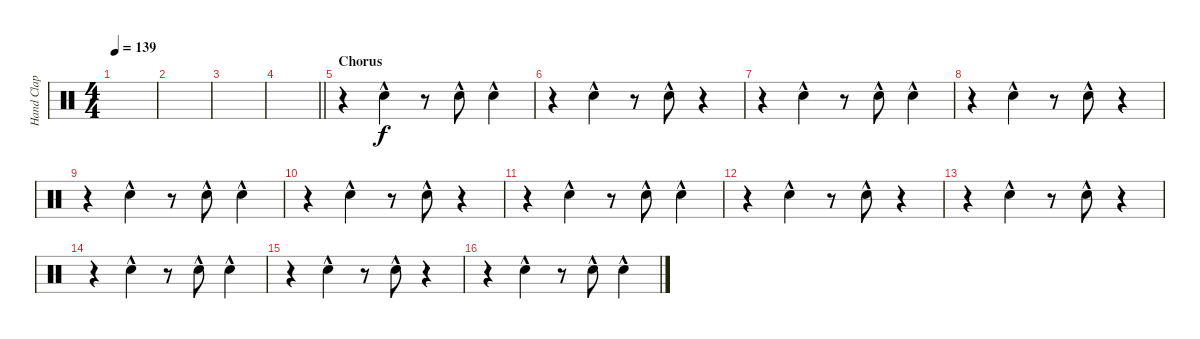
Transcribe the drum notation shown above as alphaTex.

\track ("Hand Clap Effect" "Hand Clap ") {instrument percussion}
\staff {score}
\articulation defaults
\ts (4 4)
\tempo 139
\clef neutral
\ks c
|
|
|
\barLineRight lightlight
|
\section ("" "Chorus")
r.4 "Hand Clap (hit)"{hac}.4 r.8 "Hand Clap (hit)"{hac}.8 "Hand Clap (hit)"{hac}.4 |
r.4 "Hand Clap (hit)"{hac}.4 r.8 "Hand Clap (hit)"{hac}.8 r.4 |
r.4 "Hand Clap (hit)"{hac}.4 r.8 "Hand Clap (hit)"{hac}.8 "Hand Clap (hit)"{hac}.4 |
r.4 "Hand Clap (hit)"{hac}.4 r.8 "Hand Clap (hit)"{hac}.8 r.4 |
r.4 "Hand Clap (hit)"{hac}.4 r.8 "Hand Clap (hit)"{hac}.8 "Hand Clap (hit)"{hac}.4 |
r.4 "Hand Clap (hit)"{hac}.4 r.8 "Hand Clap (hit)"{hac}.8 r.4 |
r.4 "Hand Clap (hit)"{hac}.4 r.8 "Hand Clap (hit)"{hac}.8 "Hand Clap (hit)"{hac}.4 |
r.4 "Hand Clap (hit)"{hac}.4 r.8 "Hand Clap (hit)"{hac}.8 r.4 |
r.4 "Hand Clap (hit)"{hac}.4 r.8 "Hand Clap (hit)"{hac}.8 r.4 |
r.4 "Hand Clap (hit)"{hac}.4 r.8 "Hand Clap (hit)"{hac}.8 "Hand Clap (hit)"{hac}.4 |
r.4 "Hand Clap (hit)"{hac}.4 r.8 "Hand Clap (hit)"{hac}.8 r.4 |
r.4 "Hand Clap (hit)"{hac}.4 r.8 "Hand Clap (hit)"{hac}.8 "Hand Clap (hit)"{hac}.4
